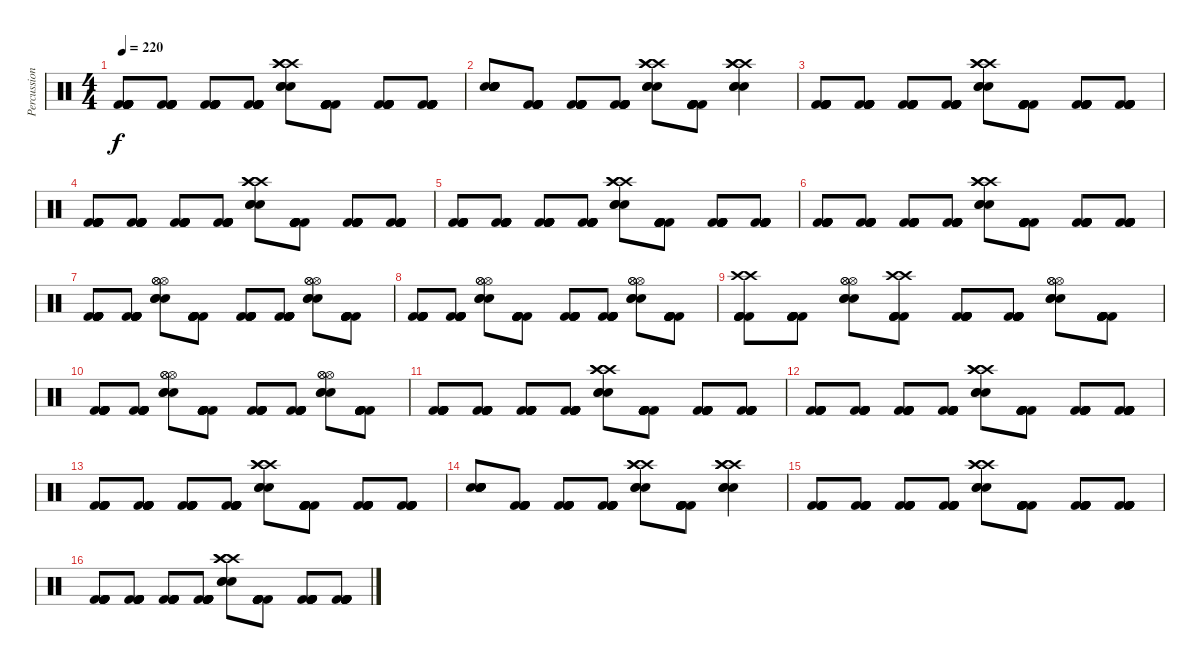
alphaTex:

\track ("Percussion" "Percussion") {instrument percussion}
\staff {score}
\articulation defaults
\ts (4 4)
\tempo 220
\clef neutral
\ks c
("Kick (hit) 2" "Kick (hit) 2" "Kick (hit) 2" "Kick (hit) 2" "Kick (hit) 2" "Kick (hit) 2").8{dy f} ("Kick (hit) 2" "Kick (hit) 2" "Kick (hit) 2" "Kick (hit) 2" "Kick (hit) 2" "Kick (hit) 2").8 ("Kick (hit) 2" "Kick (hit) 2" "Kick (hit) 2" "Kick (hit) 2" "Kick (hit) 2" "Kick (hit) 2").8 ("Kick (hit) 2" "Kick (hit) 2" "Kick (hit) 2" "Kick (hit) 2" "Kick (hit) 2" "Kick (hit) 2").8 ("Crash high (hit)" "Crash high (hit)" "Crash high (hit)" "Snare (hit) 2" "Snare (hit) 2" "Snare (hit) 2").8 ("Kick (hit) 2" "Kick (hit) 2" "Kick (hit) 2" "Kick (hit) 2" "Kick (hit) 2" "Kick (hit) 2").8 ("Kick (hit) 2" "Kick (hit) 2" "Kick (hit) 2" "Kick (hit) 2" "Kick (hit) 2" "Kick (hit) 2").8 ("Kick (hit) 2" "Kick (hit) 2" "Kick (hit) 2" "Kick (hit) 2" "Kick (hit) 2" "Kick (hit) 2").8 |
("Snare (hit) 2" "Snare (hit) 2" "Snare (hit) 2" "Snare (hit) 2" "Snare (hit) 2" "Snare (hit) 2").8 ("Kick (hit) 2" "Kick (hit) 2" "Kick (hit) 2" "Kick (hit) 2" "Kick (hit) 2" "Kick (hit) 2").8 ("Kick (hit) 2" "Kick (hit) 2" "Kick (hit) 2" "Kick (hit) 2" "Kick (hit) 2" "Kick (hit) 2").8 ("Kick (hit) 2" "Kick (hit) 2" "Kick (hit) 2" "Kick (hit) 2" "Kick (hit) 2" "Kick (hit) 2").8 ("Crash high (hit)" "Crash high (hit)" "Crash high (hit)" "Snare (hit) 2" "Snare (hit) 2" "Snare (hit) 2").8 ("Kick (hit) 2" "Kick (hit) 2" "Kick (hit) 2" "Kick (hit) 2" "Kick (hit) 2" "Kick (hit) 2").8 ("Crash high (hit)" "Crash high (hit)" "Crash high (hit)" "Snare (hit) 2" "Snare (hit) 2" "Snare (hit) 2").4 |
("Kick (hit) 2" "Kick (hit) 2" "Kick (hit) 2" "Kick (hit) 2" "Kick (hit) 2" "Kick (hit) 2").8 ("Kick (hit) 2" "Kick (hit) 2" "Kick (hit) 2" "Kick (hit) 2" "Kick (hit) 2" "Kick (hit) 2").8 ("Kick (hit) 2" "Kick (hit) 2" "Kick (hit) 2" "Kick (hit) 2" "Kick (hit) 2" "Kick (hit) 2").8 ("Kick (hit) 2" "Kick (hit) 2" "Kick (hit) 2" "Kick (hit) 2" "Kick (hit) 2" "Kick (hit) 2").8 ("Crash high (hit)" "Crash high (hit)" "Crash high (hit)" "Snare (hit) 2" "Snare (hit) 2" "Snare (hit) 2").8 ("Kick (hit) 2" "Kick (hit) 2" "Kick (hit) 2" "Kick (hit) 2" "Kick (hit) 2" "Kick (hit) 2").8 ("Kick (hit) 2" "Kick (hit) 2" "Kick (hit) 2" "Kick (hit) 2" "Kick (hit) 2" "Kick (hit) 2").8 ("Kick (hit) 2" "Kick (hit) 2" "Kick (hit) 2" "Kick (hit) 2" "Kick (hit) 2" "Kick (hit) 2").8 |
("Kick (hit) 2" "Kick (hit) 2" "Kick (hit) 2" "Kick (hit) 2" "Kick (hit) 2" "Kick (hit) 2").8 ("Kick (hit) 2" "Kick (hit) 2" "Kick (hit) 2" "Kick (hit) 2" "Kick (hit) 2" "Kick (hit) 2").8 ("Kick (hit) 2" "Kick (hit) 2" "Kick (hit) 2" "Kick (hit) 2" "Kick (hit) 2" "Kick (hit) 2").8 ("Kick (hit) 2" "Kick (hit) 2" "Kick (hit) 2" "Kick (hit) 2" "Kick (hit) 2" "Kick (hit) 2").8 ("Crash high (hit)" "Crash high (hit)" "Crash high (hit)" "Snare (hit) 2" "Snare (hit) 2" "Snare (hit) 2").8 ("Kick (hit) 2" "Kick (hit) 2" "Kick (hit) 2" "Kick (hit) 2" "Kick (hit) 2" "Kick (hit) 2").8 ("Kick (hit) 2" "Kick (hit) 2" "Kick (hit) 2" "Kick (hit) 2" "Kick (hit) 2" "Kick (hit) 2").8 ("Kick (hit) 2" "Kick (hit) 2" "Kick (hit) 2" "Kick (hit) 2" "Kick (hit) 2" "Kick (hit) 2").8 |
("Kick (hit) 2" "Kick (hit) 2" "Kick (hit) 2" "Kick (hit) 2" "Kick (hit) 2" "Kick (hit) 2").8 ("Kick (hit) 2" "Kick (hit) 2" "Kick (hit) 2" "Kick (hit) 2" "Kick (hit) 2" "Kick (hit) 2").8 ("Kick (hit) 2" "Kick (hit) 2" "Kick (hit) 2" "Kick (hit) 2" "Kick (hit) 2" "Kick (hit) 2").8 ("Kick (hit) 2" "Kick (hit) 2" "Kick (hit) 2" "Kick (hit) 2" "Kick (hit) 2" "Kick (hit) 2").8 ("Crash high (hit)" "Crash high (hit)" "Crash high (hit)" "Snare (hit) 2" "Snare (hit) 2" "Snare (hit) 2").8 ("Kick (hit) 2" "Kick (hit) 2" "Kick (hit) 2" "Kick (hit) 2" "Kick (hit) 2" "Kick (hit) 2").8 ("Kick (hit) 2" "Kick (hit) 2" "Kick (hit) 2" "Kick (hit) 2" "Kick (hit) 2" "Kick (hit) 2").8 ("Kick (hit) 2" "Kick (hit) 2" "Kick (hit) 2" "Kick (hit) 2" "Kick (hit) 2" "Kick (hit) 2").8 |
("Kick (hit) 2" "Kick (hit) 2" "Kick (hit) 2" "Kick (hit) 2" "Kick (hit) 2" "Kick (hit) 2").8 ("Kick (hit) 2" "Kick (hit) 2" "Kick (hit) 2" "Kick (hit) 2" "Kick (hit) 2" "Kick (hit) 2").8 ("Kick (hit) 2" "Kick (hit) 2" "Kick (hit) 2" "Kick (hit) 2" "Kick (hit) 2" "Kick (hit) 2").8 ("Kick (hit) 2" "Kick (hit) 2" "Kick (hit) 2" "Kick (hit) 2" "Kick (hit) 2" "Kick (hit) 2").8 ("Crash high (hit)" "Crash high (hit)" "Crash high (hit)" "Snare (hit) 2" "Snare (hit) 2" "Snare (hit) 2").8 ("Kick (hit) 2" "Kick (hit) 2" "Kick (hit) 2" "Kick (hit) 2" "Kick (hit) 2" "Kick (hit) 2").8 ("Kick (hit) 2" "Kick (hit) 2" "Kick (hit) 2" "Kick (hit) 2" "Kick (hit) 2" "Kick (hit) 2").8 ("Kick (hit) 2" "Kick (hit) 2" "Kick (hit) 2" "Kick (hit) 2" "Kick (hit) 2" "Kick (hit) 2").8 |
("Kick (hit) 2" "Kick (hit) 2" "Kick (hit) 2" "Kick (hit) 2" "Kick (hit) 2" "Kick (hit) 2").8 ("Kick (hit) 2" "Kick (hit) 2" "Kick (hit) 2" "Kick (hit) 2" "Kick (hit) 2" "Kick (hit) 2").8 ("Hi-Hat (open)" "Hi-Hat (open)" "Hi-Hat (open)" "Snare (hit) 2" "Snare (hit) 2" "Snare (hit) 2").8 ("Kick (hit) 2" "Kick (hit) 2" "Kick (hit) 2" "Kick (hit) 2" "Kick (hit) 2" "Kick (hit) 2").8 ("Kick (hit) 2" "Kick (hit) 2" "Kick (hit) 2" "Kick (hit) 2" "Kick (hit) 2" "Kick (hit) 2").8 ("Kick (hit) 2" "Kick (hit) 2" "Kick (hit) 2" "Kick (hit) 2" "Kick (hit) 2" "Kick (hit) 2").8 ("Hi-Hat (open)" "Hi-Hat (open)" "Hi-Hat (open)" "Snare (hit) 2" "Snare (hit) 2" "Snare (hit) 2").8 ("Kick (hit) 2" "Kick (hit) 2" "Kick (hit) 2" "Kick (hit) 2" "Kick (hit) 2" "Kick (hit) 2").8 |
("Kick (hit) 2" "Kick (hit) 2" "Kick (hit) 2" "Kick (hit) 2" "Kick (hit) 2" "Kick (hit) 2").8 ("Kick (hit) 2" "Kick (hit) 2" "Kick (hit) 2" "Kick (hit) 2" "Kick (hit) 2" "Kick (hit) 2").8 ("Hi-Hat (open)" "Hi-Hat (open)" "Hi-Hat (open)" "Snare (hit) 2" "Snare (hit) 2" "Snare (hit) 2").8 ("Kick (hit) 2" "Kick (hit) 2" "Kick (hit) 2" "Kick (hit) 2" "Kick (hit) 2" "Kick (hit) 2").8 ("Kick (hit) 2" "Kick (hit) 2" "Kick (hit) 2" "Kick (hit) 2" "Kick (hit) 2" "Kick (hit) 2").8 ("Kick (hit) 2" "Kick (hit) 2" "Kick (hit) 2" "Kick (hit) 2" "Kick (hit) 2" "Kick (hit) 2").8 ("Hi-Hat (open)" "Hi-Hat (open)" "Hi-Hat (open)" "Snare (hit) 2" "Snare (hit) 2" "Snare (hit) 2").8 ("Kick (hit) 2" "Kick (hit) 2" "Kick (hit) 2" "Kick (hit) 2" "Kick (hit) 2" "Kick (hit) 2").8 |
("Crash high (hit)" "Crash high (hit)" "Kick (hit) 2" "Kick (hit) 2" "Kick (hit) 2" "Kick (hit) 2").8 ("Kick (hit) 2" "Kick (hit) 2" "Kick (hit) 2" "Kick (hit) 2" "Kick (hit) 2" "Kick (hit) 2").8 ("Hi-Hat (open)" "Hi-Hat (open)" "Hi-Hat (open)" "Snare (hit) 2" "Snare (hit) 2" "Snare (hit) 2").8 ("Crash high (hit)" "Crash high (hit)" "Kick (hit) 2" "Kick (hit) 2" "Kick (hit) 2" "Kick (hit) 2").8 ("Kick (hit) 2" "Kick (hit) 2" "Kick (hit) 2" "Kick (hit) 2" "Kick (hit) 2" "Kick (hit) 2").8 ("Kick (hit) 2" "Kick (hit) 2" "Kick (hit) 2" "Kick (hit) 2" "Kick (hit) 2" "Kick (hit) 2").8 ("Hi-Hat (open)" "Hi-Hat (open)" "Hi-Hat (open)" "Snare (hit) 2" "Snare (hit) 2" "Snare (hit) 2").8 ("Kick (hit) 2" "Kick (hit) 2" "Kick (hit) 2" "Kick (hit) 2" "Kick (hit) 2" "Kick (hit) 2").8 |
("Kick (hit) 2" "Kick (hit) 2" "Kick (hit) 2" "Kick (hit) 2" "Kick (hit) 2" "Kick (hit) 2").8 ("Kick (hit) 2" "Kick (hit) 2" "Kick (hit) 2" "Kick (hit) 2" "Kick (hit) 2" "Kick (hit) 2").8 ("Hi-Hat (open)" "Hi-Hat (open)" "Hi-Hat (open)" "Snare (hit) 2" "Snare (hit) 2" "Snare (hit) 2").8 ("Kick (hit) 2" "Kick (hit) 2" "Kick (hit) 2" "Kick (hit) 2" "Kick (hit) 2" "Kick (hit) 2").8 ("Kick (hit) 2" "Kick (hit) 2" "Kick (hit) 2" "Kick (hit) 2" "Kick (hit) 2" "Kick (hit) 2").8 ("Kick (hit) 2" "Kick (hit) 2" "Kick (hit) 2" "Kick (hit) 2" "Kick (hit) 2" "Kick (hit) 2").8 ("Hi-Hat (open)" "Hi-Hat (open)" "Hi-Hat (open)" "Snare (hit) 2" "Snare (hit) 2" "Snare (hit) 2").8 ("Kick (hit) 2" "Kick (hit) 2" "Kick (hit) 2" "Kick (hit) 2" "Kick (hit) 2" "Kick (hit) 2").8 |
("Kick (hit) 2" "Kick (hit) 2" "Kick (hit) 2" "Kick (hit) 2" "Kick (hit) 2" "Kick (hit) 2").8 ("Kick (hit) 2" "Kick (hit) 2" "Kick (hit) 2" "Kick (hit) 2" "Kick (hit) 2" "Kick (hit) 2").8 ("Kick (hit) 2" "Kick (hit) 2" "Kick (hit) 2" "Kick (hit) 2" "Kick (hit) 2" "Kick (hit) 2").8 ("Kick (hit) 2" "Kick (hit) 2" "Kick (hit) 2" "Kick (hit) 2" "Kick (hit) 2" "Kick (hit) 2").8 ("Crash high (hit)" "Crash high (hit)" "Crash high (hit)" "Snare (hit) 2" "Snare (hit) 2" "Snare (hit) 2").8 ("Kick (hit) 2" "Kick (hit) 2" "Kick (hit) 2" "Kick (hit) 2" "Kick (hit) 2" "Kick (hit) 2").8 ("Kick (hit) 2" "Kick (hit) 2" "Kick (hit) 2" "Kick (hit) 2" "Kick (hit) 2" "Kick (hit) 2").8 ("Kick (hit) 2" "Kick (hit) 2" "Kick (hit) 2" "Kick (hit) 2" "Kick (hit) 2" "Kick (hit) 2").8 |
("Kick (hit) 2" "Kick (hit) 2" "Kick (hit) 2" "Kick (hit) 2" "Kick (hit) 2" "Kick (hit) 2").8 ("Kick (hit) 2" "Kick (hit) 2" "Kick (hit) 2" "Kick (hit) 2" "Kick (hit) 2" "Kick (hit) 2").8 ("Kick (hit) 2" "Kick (hit) 2" "Kick (hit) 2" "Kick (hit) 2" "Kick (hit) 2" "Kick (hit) 2").8 ("Kick (hit) 2" "Kick (hit) 2" "Kick (hit) 2" "Kick (hit) 2" "Kick (hit) 2" "Kick (hit) 2").8 ("Crash high (hit)" "Crash high (hit)" "Crash high (hit)" "Snare (hit) 2" "Snare (hit) 2" "Snare (hit) 2").8 ("Kick (hit) 2" "Kick (hit) 2" "Kick (hit) 2" "Kick (hit) 2" "Kick (hit) 2" "Kick (hit) 2").8 ("Kick (hit) 2" "Kick (hit) 2" "Kick (hit) 2" "Kick (hit) 2" "Kick (hit) 2" "Kick (hit) 2").8 ("Kick (hit) 2" "Kick (hit) 2" "Kick (hit) 2" "Kick (hit) 2" "Kick (hit) 2" "Kick (hit) 2").8 |
("Kick (hit) 2" "Kick (hit) 2" "Kick (hit) 2" "Kick (hit) 2" "Kick (hit) 2" "Kick (hit) 2").8 ("Kick (hit) 2" "Kick (hit) 2" "Kick (hit) 2" "Kick (hit) 2" "Kick (hit) 2" "Kick (hit) 2").8 ("Kick (hit) 2" "Kick (hit) 2" "Kick (hit) 2" "Kick (hit) 2" "Kick (hit) 2" "Kick (hit) 2").8 ("Kick (hit) 2" "Kick (hit) 2" "Kick (hit) 2" "Kick (hit) 2" "Kick (hit) 2" "Kick (hit) 2").8 ("Crash high (hit)" "Crash high (hit)" "Crash high (hit)" "Snare (hit) 2" "Snare (hit) 2" "Snare (hit) 2").8 ("Kick (hit) 2" "Kick (hit) 2" "Kick (hit) 2" "Kick (hit) 2" "Kick (hit) 2" "Kick (hit) 2").8 ("Kick (hit) 2" "Kick (hit) 2" "Kick (hit) 2" "Kick (hit) 2" "Kick (hit) 2" "Kick (hit) 2").8 ("Kick (hit) 2" "Kick (hit) 2" "Kick (hit) 2" "Kick (hit) 2" "Kick (hit) 2" "Kick (hit) 2").8 |
("Snare (hit) 2" "Snare (hit) 2" "Snare (hit) 2" "Snare (hit) 2" "Snare (hit) 2" "Snare (hit) 2").8 ("Kick (hit) 2" "Kick (hit) 2" "Kick (hit) 2" "Kick (hit) 2" "Kick (hit) 2" "Kick (hit) 2").8 ("Kick (hit) 2" "Kick (hit) 2" "Kick (hit) 2" "Kick (hit) 2" "Kick (hit) 2" "Kick (hit) 2").8 ("Kick (hit) 2" "Kick (hit) 2" "Kick (hit) 2" "Kick (hit) 2" "Kick (hit) 2" "Kick (hit) 2").8 ("Crash high (hit)" "Crash high (hit)" "Crash high (hit)" "Snare (hit) 2" "Snare (hit) 2" "Snare (hit) 2").8 ("Kick (hit) 2" "Kick (hit) 2" "Kick (hit) 2" "Kick (hit) 2" "Kick (hit) 2" "Kick (hit) 2").8 ("Crash high (hit)" "Crash high (hit)" "Crash high (hit)" "Snare (hit) 2" "Snare (hit) 2" "Snare (hit) 2").4 |
("Kick (hit) 2" "Kick (hit) 2" "Kick (hit) 2" "Kick (hit) 2" "Kick (hit) 2" "Kick (hit) 2").8 ("Kick (hit) 2" "Kick (hit) 2" "Kick (hit) 2" "Kick (hit) 2" "Kick (hit) 2" "Kick (hit) 2").8 ("Kick (hit) 2" "Kick (hit) 2" "Kick (hit) 2" "Kick (hit) 2" "Kick (hit) 2" "Kick (hit) 2").8 ("Kick (hit) 2" "Kick (hit) 2" "Kick (hit) 2" "Kick (hit) 2" "Kick (hit) 2" "Kick (hit) 2").8 ("Crash high (hit)" "Crash high (hit)" "Crash high (hit)" "Snare (hit) 2" "Snare (hit) 2" "Snare (hit) 2").8 ("Kick (hit) 2" "Kick (hit) 2" "Kick (hit) 2" "Kick (hit) 2" "Kick (hit) 2" "Kick (hit) 2").8 ("Kick (hit) 2" "Kick (hit) 2" "Kick (hit) 2" "Kick (hit) 2" "Kick (hit) 2" "Kick (hit) 2").8 ("Kick (hit) 2" "Kick (hit) 2" "Kick (hit) 2" "Kick (hit) 2" "Kick (hit) 2" "Kick (hit) 2").8 |
("Kick (hit) 2" "Kick (hit) 2" "Kick (hit) 2" "Kick (hit) 2" "Kick (hit) 2" "Kick (hit) 2").8 ("Kick (hit) 2" "Kick (hit) 2" "Kick (hit) 2" "Kick (hit) 2" "Kick (hit) 2" "Kick (hit) 2").8 ("Kick (hit) 2" "Kick (hit) 2" "Kick (hit) 2" "Kick (hit) 2" "Kick (hit) 2" "Kick (hit) 2").8 ("Kick (hit) 2" "Kick (hit) 2" "Kick (hit) 2" "Kick (hit) 2" "Kick (hit) 2" "Kick (hit) 2").8 ("Crash high (hit)" "Crash high (hit)" "Crash high (hit)" "Snare (hit) 2" "Snare (hit) 2" "Snare (hit) 2").8 ("Kick (hit) 2" "Kick (hit) 2" "Kick (hit) 2" "Kick (hit) 2" "Kick (hit) 2" "Kick (hit) 2").8 ("Kick (hit) 2" "Kick (hit) 2" "Kick (hit) 2" "Kick (hit) 2" "Kick (hit) 2" "Kick (hit) 2").8 ("Kick (hit) 2" "Kick (hit) 2" "Kick (hit) 2" "Kick (hit) 2" "Kick (hit) 2" "Kick (hit) 2").8
